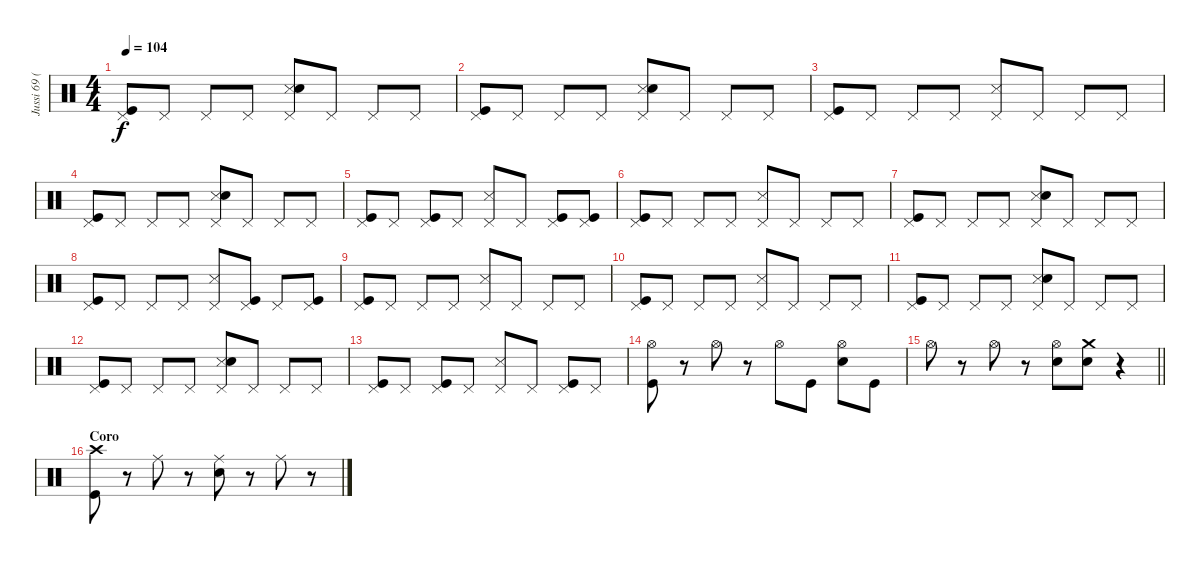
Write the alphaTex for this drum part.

\track ("Jussi 69 (Batería)" "Jussi 69 (") {instrument percussion}
\staff {score}
\articulation defaults
\ts (4 4)
\tempo 104
\clef neutral
\ks c
("Pedal Hi-Hat (hit)" "Kick (hit)").8{dy f} "Pedal Hi-Hat (hit)".8 "Pedal Hi-Hat (hit)".8 "Pedal Hi-Hat (hit)".8 ("Pedal Hi-Hat (hit)" "Metronome (hit)" "Metronome (bell)").8 "Pedal Hi-Hat (hit)".8 "Pedal Hi-Hat (hit)".8 "Pedal Hi-Hat (hit)".8 |
("Pedal Hi-Hat (hit)" "Kick (hit)").8 "Pedal Hi-Hat (hit)".8 "Pedal Hi-Hat (hit)".8 "Pedal Hi-Hat (hit)".8 ("Pedal Hi-Hat (hit)" "Metronome (hit)" "Metronome (bell)").8 "Pedal Hi-Hat (hit)".8 "Pedal Hi-Hat (hit)".8 "Pedal Hi-Hat (hit)".8 |
("Pedal Hi-Hat (hit)" "Kick (hit)").8 "Pedal Hi-Hat (hit)".8 "Pedal Hi-Hat (hit)".8 "Pedal Hi-Hat (hit)".8 ("Pedal Hi-Hat (hit)" "Metronome (hit)").8 "Pedal Hi-Hat (hit)".8 "Pedal Hi-Hat (hit)".8 "Pedal Hi-Hat (hit)".8 |
("Pedal Hi-Hat (hit)" "Kick (hit)").8 "Pedal Hi-Hat (hit)".8 "Pedal Hi-Hat (hit)".8 "Pedal Hi-Hat (hit)".8 ("Pedal Hi-Hat (hit)" "Metronome (hit)" "Metronome (bell)").8 "Pedal Hi-Hat (hit)".8 "Pedal Hi-Hat (hit)".8 "Pedal Hi-Hat (hit)".8 |
("Pedal Hi-Hat (hit)" "Kick (hit)").8 "Pedal Hi-Hat (hit)".8 ("Pedal Hi-Hat (hit)" "Kick (hit)").8 "Pedal Hi-Hat (hit)".8 ("Pedal Hi-Hat (hit)" "Metronome (hit)").8 "Pedal Hi-Hat (hit)".8 ("Pedal Hi-Hat (hit)" "Kick (hit)").8 ("Pedal Hi-Hat (hit)" "Kick (hit)").8 |
("Pedal Hi-Hat (hit)" "Kick (hit)").8 "Pedal Hi-Hat (hit)".8 "Pedal Hi-Hat (hit)".8 "Pedal Hi-Hat (hit)".8 ("Pedal Hi-Hat (hit)" "Metronome (hit)").8 "Pedal Hi-Hat (hit)".8 "Pedal Hi-Hat (hit)".8 "Pedal Hi-Hat (hit)".8 |
("Pedal Hi-Hat (hit)" "Kick (hit)").8 "Pedal Hi-Hat (hit)".8 "Pedal Hi-Hat (hit)".8 "Pedal Hi-Hat (hit)".8 ("Pedal Hi-Hat (hit)" "Metronome (hit)" "Metronome (bell)").8 "Pedal Hi-Hat (hit)".8 "Pedal Hi-Hat (hit)".8 "Pedal Hi-Hat (hit)".8 |
("Pedal Hi-Hat (hit)" "Kick (hit)").8 "Pedal Hi-Hat (hit)".8 "Pedal Hi-Hat (hit)".8 "Pedal Hi-Hat (hit)".8 ("Pedal Hi-Hat (hit)" "Metronome (hit)").8 ("Pedal Hi-Hat (hit)" "Kick (hit)").8 "Pedal Hi-Hat (hit)".8 ("Pedal Hi-Hat (hit)" "Kick (hit)").8 |
("Pedal Hi-Hat (hit)" "Kick (hit)").8 "Pedal Hi-Hat (hit)".8 "Pedal Hi-Hat (hit)".8 "Pedal Hi-Hat (hit)".8 ("Pedal Hi-Hat (hit)" "Metronome (hit)").8 "Pedal Hi-Hat (hit)".8 "Pedal Hi-Hat (hit)".8 "Pedal Hi-Hat (hit)".8 |
("Pedal Hi-Hat (hit)" "Kick (hit)").8 "Pedal Hi-Hat (hit)".8 "Pedal Hi-Hat (hit)".8 "Pedal Hi-Hat (hit)".8 ("Pedal Hi-Hat (hit)" "Metronome (hit)").8 "Pedal Hi-Hat (hit)".8 "Pedal Hi-Hat (hit)".8 "Pedal Hi-Hat (hit)".8 |
("Pedal Hi-Hat (hit)" "Kick (hit)").8 "Pedal Hi-Hat (hit)".8 "Pedal Hi-Hat (hit)".8 "Pedal Hi-Hat (hit)".8 ("Pedal Hi-Hat (hit)" "Metronome (hit)" "Metronome (bell)").8 "Pedal Hi-Hat (hit)".8 "Pedal Hi-Hat (hit)".8 "Pedal Hi-Hat (hit)".8 |
("Pedal Hi-Hat (hit)" "Kick (hit)").8 "Pedal Hi-Hat (hit)".8 "Pedal Hi-Hat (hit)".8 "Pedal Hi-Hat (hit)".8 ("Pedal Hi-Hat (hit)" "Metronome (hit)" "Metronome (bell)").8 "Pedal Hi-Hat (hit)".8 "Pedal Hi-Hat (hit)".8 "Pedal Hi-Hat (hit)".8 |
("Pedal Hi-Hat (hit)" "Kick (hit)").8 "Pedal Hi-Hat (hit)".8 ("Pedal Hi-Hat (hit)" "Kick (hit)").8 "Pedal Hi-Hat (hit)".8 ("Pedal Hi-Hat (hit)" "Metronome (hit)").8 "Pedal Hi-Hat (hit)".8 ("Pedal Hi-Hat (hit)" "Kick (hit)").8 "Pedal Hi-Hat (hit)".8 |
("Hi-Hat (open)" "Kick (hit)").8 r.8 "Hi-Hat (open)".8 r.8 "Hi-Hat (open)".8 "Kick (hit)".8 ("Hi-Hat (open)" "Electric Snare (hit)").8 "Kick (hit)".8 |
\barLineRight lightlight "Hi-Hat (open)".8
r.8 "Hi-Hat (open)".8 r.8 ("Hi-Hat (open)" "Electric Snare (hit)").8 ("Crash medium (hit)" "Electric Snare (hit)").8 r.4 |
\section ("" "Coro")
("Crash high (hit)" "Kick (hit)").8 r.8 "Ride (middle)".8 r.8 ("Ride (middle)" "Electric Snare (hit)").8 r.8 "Ride (middle)".8 r.8
